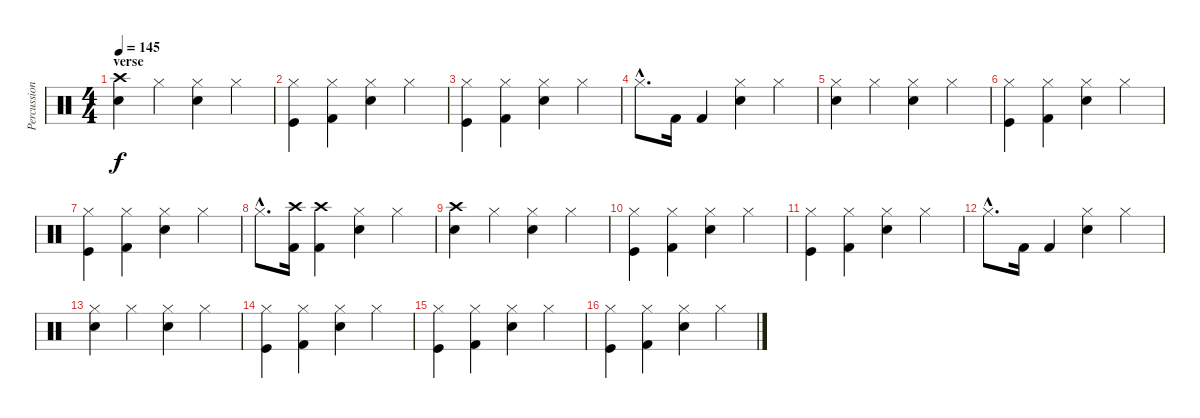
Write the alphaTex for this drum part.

\track ("Percussion" "Percussion") {instrument percussion}
\staff {score}
\articulation defaults
\ts (4 4)
\section ("" "verse")
\tempo 145
\clef neutral
\ks c
("Crash high (hit)" "Snare (hit) 2").4{dy f} "Hi-Hat (closed)".4 ("Hi-Hat (closed)" "Snare (hit) 2").4 "Hi-Hat (closed)".4 |
("Hi-Hat (closed)" "Kick (hit)").4 ("Hi-Hat (closed)" "Kick (hit) 2").4 ("Hi-Hat (closed)" "Snare (hit) 2").4 "Hi-Hat (closed)".4 |
("Hi-Hat (closed)" "Kick (hit)").4 ("Hi-Hat (closed)" "Kick (hit) 2").4 ("Hi-Hat (closed)" "Snare (hit) 2").4 "Hi-Hat (closed)".4 |
"Hi-Hat (closed)"{hac}.8{d} "Kick (hit) 2".16 "Kick (hit) 2".4 ("Hi-Hat (closed)" "Snare (hit) 2").4 "Hi-Hat (closed)".4 |
("Hi-Hat (closed)" "Snare (hit) 2").4 "Hi-Hat (closed)".4 ("Hi-Hat (closed)" "Snare (hit) 2").4 "Hi-Hat (closed)".4 |
("Hi-Hat (closed)" "Kick (hit)").4 ("Hi-Hat (closed)" "Kick (hit) 2").4 ("Hi-Hat (closed)" "Snare (hit) 2").4 "Hi-Hat (closed)".4 |
("Hi-Hat (closed)" "Kick (hit)").4 ("Hi-Hat (closed)" "Kick (hit) 2").4 ("Hi-Hat (closed)" "Snare (hit) 2").4 "Hi-Hat (closed)".4 |
"Hi-Hat (closed)"{hac}.8{d} ("Crash high (hit)" "Kick (hit) 2").16 ("Crash high (hit)" "Kick (hit) 2").4 ("Hi-Hat (closed)" "Snare (hit) 2").4 "Hi-Hat (closed)".4 |
("Crash high (hit)" "Snare (hit) 2").4 "Hi-Hat (closed)".4 ("Hi-Hat (closed)" "Snare (hit) 2").4 "Hi-Hat (closed)".4 |
("Hi-Hat (closed)" "Kick (hit)").4 ("Hi-Hat (closed)" "Kick (hit) 2").4 ("Hi-Hat (closed)" "Snare (hit) 2").4 "Hi-Hat (closed)".4 |
("Hi-Hat (closed)" "Kick (hit)").4 ("Hi-Hat (closed)" "Kick (hit) 2").4 ("Hi-Hat (closed)" "Snare (hit) 2").4 "Hi-Hat (closed)".4 |
"Hi-Hat (closed)"{hac}.8{d} "Kick (hit) 2".16 "Kick (hit) 2".4 ("Hi-Hat (closed)" "Snare (hit) 2").4 "Hi-Hat (closed)".4 |
("Hi-Hat (closed)" "Snare (hit) 2").4 "Hi-Hat (closed)".4 ("Hi-Hat (closed)" "Snare (hit) 2").4 "Hi-Hat (closed)".4 |
("Hi-Hat (closed)" "Kick (hit)").4 ("Hi-Hat (closed)" "Kick (hit) 2").4 ("Hi-Hat (closed)" "Snare (hit) 2").4 "Hi-Hat (closed)".4 |
("Hi-Hat (closed)" "Kick (hit)").4 ("Hi-Hat (closed)" "Kick (hit) 2").4 ("Hi-Hat (closed)" "Snare (hit) 2").4 "Hi-Hat (closed)".4 |
("Hi-Hat (closed)" "Kick (hit)").4 ("Hi-Hat (closed)" "Kick (hit) 2").4 ("Hi-Hat (closed)" "Snare (hit) 2").4 "Hi-Hat (closed)".4
